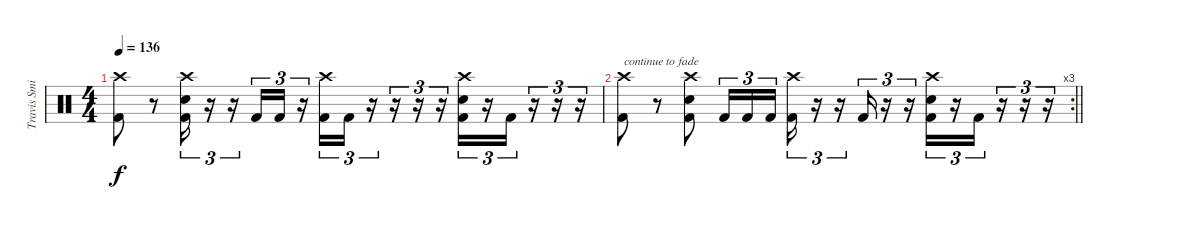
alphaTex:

\track ("Travis Smith" "Travis Smi") {instrument percussion}
\staff {score}
\articulation defaults
\ts (4 4)
\tempo 136
\clef neutral
\ks c
("Crash high (hit)" "Kick (hit) 2").8{dy f} r.8 ("Crash high (hit)" "Snare (hit) 2" "Kick (hit) 2").16{tu (3 2)} r.16{tu (3 2)} r.16{tu (3 2)} "Kick (hit) 2".16{tu (3 2)} "Kick (hit) 2".16{tu (3 2)} r.16{tu (3 2)} ("Crash high (hit)" "Kick (hit) 2").16{tu (3 2)} "Kick (hit) 2".16{tu (3 2)} r.16{tu (3 2)} r.16{tu (3 2)} r.16{tu (3 2)} r.16{tu (3 2)} ("Crash high (hit)" "Snare (hit) 2" "Kick (hit) 2").16{tu (3 2)} r.16{tu (3 2)} "Kick (hit) 2".16{tu (3 2)} r.16{tu (3 2)} r.16{tu (3 2)} r.16{tu (3 2)} |
\rc 3
\barLineRight lightlight
("Crash high (hit)" "Kick (hit) 2").8{txt "continue to fade"} r.8 ("Crash high (hit)" "Snare (hit) 2" "Kick (hit) 2").8 "Kick (hit) 2".16{tu (3 2)} "Kick (hit) 2".16{tu (3 2)} "Kick (hit) 2".16{tu (3 2)} ("Crash high (hit)" "Kick (hit) 2").16{tu (3 2)} r.16{tu (3 2)} r.16{tu (3 2)} "Kick (hit) 2".16{tu (3 2)} r.16{tu (3 2)} r.16{tu (3 2)} ("Crash high (hit)" "Snare (hit) 2" "Kick (hit) 2").16{tu (3 2)} r.16{tu (3 2)} "Kick (hit) 2".16{tu (3 2)} r.16{tu (3 2)} r.16{tu (3 2)} r.16{tu (3 2)}
